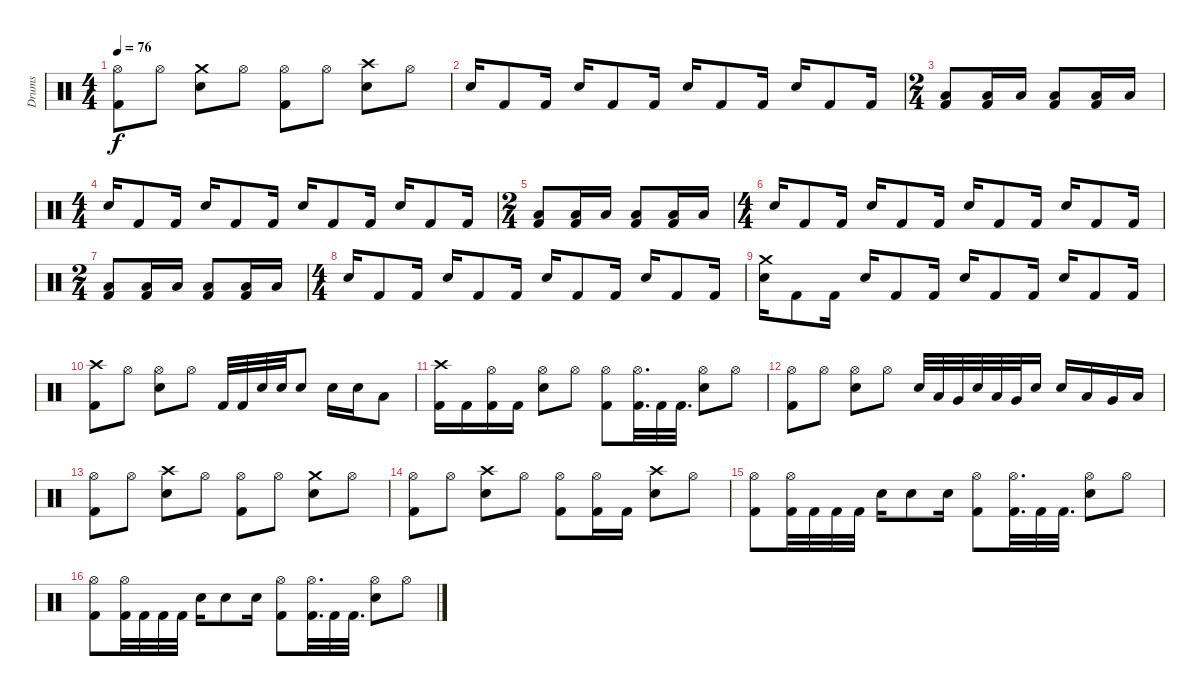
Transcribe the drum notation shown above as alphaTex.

\track ("Drums" "Drums") {instrument percussion}
\staff {score}
\articulation defaults
\ts (4 4)
\tempo 76
\clef neutral
\ks c
("Hi-Hat (open)" "Kick (hit) 2").8{dy f} "Hi-Hat (open)".8 ("Snare (hit) 2" "Crash medium (hit)").8 "Hi-Hat (open)".8 ("Kick (hit) 2" "Hi-Hat (open)").8 "Hi-Hat (open)".8 ("Crash high (hit)" "Snare (hit) 2").8 "Hi-Hat (open)".8 |
"Snare (hit) 2".16 "Kick (hit) 2".8 "Kick (hit) 2".16 "Snare (hit) 2".16 "Kick (hit) 2".8 "Kick (hit) 2".16 "Snare (hit) 2".16 "Kick (hit) 2".8 "Kick (hit) 2".16 "Snare (hit) 2".16 "Kick (hit) 2".8 "Kick (hit) 2".16 |
\ts (2 4)
("Low Floor Tom (hit)" "Kick (hit) 2").8 ("Kick (hit) 2" "Low Floor Tom (hit)").16 "Low Floor Tom (hit)".16 ("Low Floor Tom (hit)" "Kick (hit) 2").8 ("Kick (hit) 2" "Low Floor Tom (hit)").16 "Low Floor Tom (hit)".16 |
\ts (4 4)
"Snare (hit) 2".16 "Kick (hit) 2".8 "Kick (hit) 2".16 "Snare (hit) 2".16 "Kick (hit) 2".8 "Kick (hit) 2".16 "Snare (hit) 2".16 "Kick (hit) 2".8 "Kick (hit) 2".16 "Snare (hit) 2".16 "Kick (hit) 2".8 "Kick (hit) 2".16 |
\ts (2 4)
("Low Floor Tom (hit)" "Kick (hit) 2").8 ("Kick (hit) 2" "Low Floor Tom (hit)").16 "Low Floor Tom (hit)".16 ("Low Floor Tom (hit)" "Kick (hit) 2").8 ("Kick (hit) 2" "Low Floor Tom (hit)").16 "Low Floor Tom (hit)".16 |
\ts (4 4)
"Snare (hit) 2".16 "Kick (hit) 2".8 "Kick (hit) 2".16 "Snare (hit) 2".16 "Kick (hit) 2".8 "Kick (hit) 2".16 "Snare (hit) 2".16 "Kick (hit) 2".8 "Kick (hit) 2".16 "Snare (hit) 2".16 "Kick (hit) 2".8 "Kick (hit) 2".16 |
\ts (2 4)
("Kick (hit) 2" "Low Floor Tom (hit)").8 ("Kick (hit) 2" "Low Floor Tom (hit)").16 "Low Floor Tom (hit)".16 ("Kick (hit) 2" "Low Floor Tom (hit)").8 ("Kick (hit) 2" "Low Floor Tom (hit)").16 "Low Floor Tom (hit)".16 |
\ts (4 4)
"Snare (hit) 2".16 "Kick (hit) 2".8 "Kick (hit) 2".16 "Snare (hit) 2".16 "Kick (hit) 2".8 "Kick (hit) 2".16 "Snare (hit) 2".16 "Kick (hit) 2".8 "Kick (hit) 2".16 "Snare (hit) 2".16 "Kick (hit) 2".8 "Kick (hit) 2".16 |
("Crash medium (hit)" "Snare (hit) 2").16 "Kick (hit) 2".8 "Kick (hit) 2".16 "Snare (hit) 2".16 "Kick (hit) 2".8 "Kick (hit) 2".16 "Snare (hit) 2".16 "Kick (hit) 2".8 "Kick (hit) 2".16 "Snare (hit) 2".16 "Kick (hit) 2".8 "Kick (hit) 2".16 |
("Crash high (hit)" "Kick (hit) 2").8 "Hi-Hat (open)".8 ("Snare (hit) 2" "Hi-Hat (open)").8 "Hi-Hat (open)".8 "Kick (hit) 2".32 "Kick (hit) 2".32 "Snare (hit) 2".32 "Snare (hit) 2".32 "Snare (hit) 2".8 "Snare (hit) 2".16 "Snare (hit) 2".16 "Low Tom (hit)".8 |
("Crash high (hit)" "Kick (hit) 2").16 "Kick (hit) 2".16 ("Kick (hit) 2" "Hi-Hat (open)").16 "Kick (hit) 2".16 ("Snare (hit) 2" "Hi-Hat (open)").8 "Hi-Hat (open)".8 ("Kick (hit) 2" "Hi-Hat (open)").8 ("Hi-Hat (open)" "Kick (hit) 2").32{d} "Kick (hit) 2".32 "Kick (hit) 2".32{d} ("Snare (hit) 2" "Hi-Hat (open)").8 "Hi-Hat (open)".8 |
("Hi-Hat (open)" "Kick (hit) 2").8 "Hi-Hat (open)".8 ("Snare (hit) 2" "Hi-Hat (open)").8 "Hi-Hat (open)".8 "Snare (hit) 2".32 "Low Tom (hit)".32 "Very Low Tom (hit)".32 "Snare (hit) 2".32 "Low Tom (hit)".32 "Very Low Tom (hit)".32 "Snare (hit) 2".16 "Snare (hit) 2".16 "Low Tom (hit)".16 "Very Low Tom (hit)".16 "Low Floor Tom (hit)".16 |
("Kick (hit) 2" "Hi-Hat (open)").8 "Hi-Hat (open)".8 ("Crash high (hit)" "Snare (hit) 2").8 "Hi-Hat (open)".8 ("Kick (hit) 2" "Hi-Hat (open)").8 "Hi-Hat (open)".8 ("Crash medium (hit)" "Snare (hit) 2").8 "Hi-Hat (open)".8 |
("Kick (hit) 2" "Hi-Hat (open)").8 "Hi-Hat (open)".8 ("Snare (hit) 2" "Crash high (hit)").8 "Hi-Hat (open)".8 ("Kick (hit) 2" "Hi-Hat (open)").8 ("Kick (hit) 2" "Hi-Hat (open)").16 "Kick (hit) 2".16 ("Crash high (hit)" "Snare (hit) 2").8 "Hi-Hat (open)".8 |
("Kick (hit) 2" "Hi-Hat (open)").8 ("Hi-Hat (open)" "Kick (hit) 2").32 "Kick (hit) 2".32 "Kick (hit) 2".32 "Kick (hit) 2".32 "Snare (hit) 2".16 "Snare (hit) 2".8 "Snare (hit) 2".16 ("Hi-Hat (open)" "Kick (hit) 2").8 ("Kick (hit) 2" "Hi-Hat (open)").32{d} "Kick (hit) 2".32 "Kick (hit) 2".32{d} ("Snare (hit) 2" "Hi-Hat (open)").8 "Hi-Hat (open)".8 |
("Kick (hit) 2" "Hi-Hat (open)").8 ("Hi-Hat (open)" "Kick (hit) 2").32 "Kick (hit) 2".32 "Kick (hit) 2".32 "Kick (hit) 2".32 "Snare (hit) 2".16 "Snare (hit) 2".8 "Snare (hit) 2".16 ("Hi-Hat (open)" "Kick (hit) 2").8 ("Kick (hit) 2" "Hi-Hat (open)").32{d} "Kick (hit) 2".32 "Kick (hit) 2".32{d} ("Snare (hit) 2" "Hi-Hat (open)").8 "Hi-Hat (open)".8
